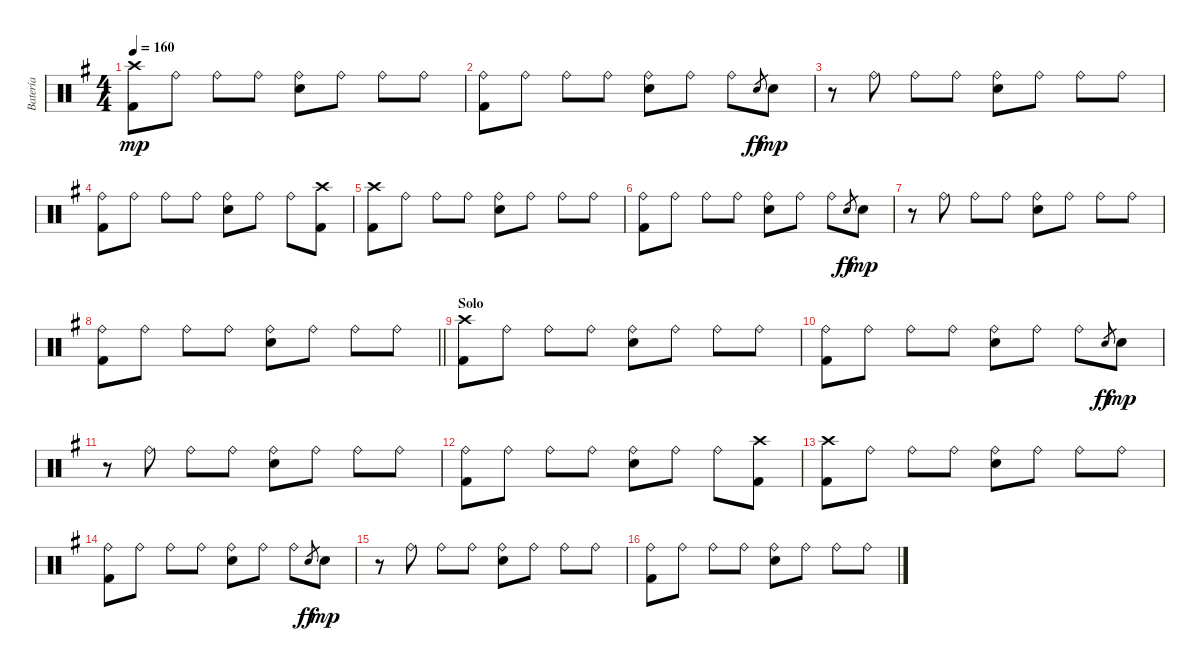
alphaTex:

\track ("Batería" "Batería") {instrument percussion}
\staff {score}
\articulation defaults
\ts (4 4)
\tempo 160
\clef neutral
\ks g
("Crash high (hit)" "Kick (hit) 2").8{dy mp} "Ride (bell)".8 "Ride (bell)".8 "Ride (bell)".8 ("Ride (bell)" "Snare (hit) 2").8 "Ride (bell)".8 "Ride (bell)".8 "Ride (bell)".8 |
("Ride (bell)" "Kick (hit) 2").8 "Ride (bell)".8 "Ride (bell)".8 "Ride (bell)".8 ("Ride (bell)" "Snare (hit) 2").8 "Ride (bell)".8 "Ride (bell)".8 "Snare (hit) 2".8{gr dy ff} "Snare (hit) 2".8{dy mp} |
r.8 "Ride (bell)".8 "Ride (bell)".8 "Ride (bell)".8 ("Ride (bell)" "Snare (hit) 2").8 "Ride (bell)".8 "Ride (bell)".8 "Ride (bell)".8 |
("Ride (bell)" "Kick (hit) 2").8 "Ride (bell)".8 "Ride (bell)".8 "Ride (bell)".8 ("Ride (bell)" "Snare (hit) 2").8 "Ride (bell)".8 "Ride (bell)".8 ("Crash high (hit)" "Kick (hit) 2").8 |
("Crash high (hit)" "Kick (hit) 2").8 "Ride (bell)".8 "Ride (bell)".8 "Ride (bell)".8 ("Ride (bell)" "Snare (hit) 2").8 "Ride (bell)".8 "Ride (bell)".8 "Ride (bell)".8 |
("Ride (bell)" "Kick (hit) 2").8 "Ride (bell)".8 "Ride (bell)".8 "Ride (bell)".8 ("Ride (bell)" "Snare (hit) 2").8 "Ride (bell)".8 "Ride (bell)".8 "Snare (hit) 2".8{gr dy ff} "Snare (hit) 2".8{dy mp} |
r.8 "Ride (bell)".8 "Ride (bell)".8 "Ride (bell)".8 ("Ride (bell)" "Snare (hit) 2").8 "Ride (bell)".8 "Ride (bell)".8 "Ride (bell)".8 |
\barLineRight lightlight
("Ride (bell)" "Kick (hit) 2").8 "Ride (bell)".8 "Ride (bell)".8 "Ride (bell)".8 ("Ride (bell)" "Snare (hit) 2").8 "Ride (bell)".8 "Ride (bell)".8 "Ride (bell)".8 |
\section ("" "Solo")
("Crash high (hit)" "Kick (hit) 2").8 "Ride (bell)".8 "Ride (bell)".8 "Ride (bell)".8 ("Ride (bell)" "Snare (hit) 2").8 "Ride (bell)".8 "Ride (bell)".8 "Ride (bell)".8 |
("Ride (bell)" "Kick (hit) 2").8 "Ride (bell)".8 "Ride (bell)".8 "Ride (bell)".8 ("Ride (bell)" "Snare (hit) 2").8 "Ride (bell)".8 "Ride (bell)".8 "Snare (hit) 2".8{gr dy ff} "Snare (hit) 2".8{dy mp} |
r.8 "Ride (bell)".8 "Ride (bell)".8 "Ride (bell)".8 ("Ride (bell)" "Snare (hit) 2").8 "Ride (bell)".8 "Ride (bell)".8 "Ride (bell)".8 |
("Ride (bell)" "Kick (hit) 2").8 "Ride (bell)".8 "Ride (bell)".8 "Ride (bell)".8 ("Ride (bell)" "Snare (hit) 2").8 "Ride (bell)".8 "Ride (bell)".8 ("Crash high (hit)" "Kick (hit) 2").8 |
("Crash high (hit)" "Kick (hit) 2").8 "Ride (bell)".8 "Ride (bell)".8 "Ride (bell)".8 ("Ride (bell)" "Snare (hit) 2").8 "Ride (bell)".8 "Ride (bell)".8 "Ride (bell)".8 |
("Ride (bell)" "Kick (hit) 2").8 "Ride (bell)".8 "Ride (bell)".8 "Ride (bell)".8 ("Ride (bell)" "Snare (hit) 2").8 "Ride (bell)".8 "Ride (bell)".8 "Snare (hit) 2".8{gr dy ff} "Snare (hit) 2".8{dy mp} |
r.8 "Ride (bell)".8 "Ride (bell)".8 "Ride (bell)".8 ("Ride (bell)" "Snare (hit) 2").8 "Ride (bell)".8 "Ride (bell)".8 "Ride (bell)".8 |
("Ride (bell)" "Kick (hit) 2").8 "Ride (bell)".8 "Ride (bell)".8 "Ride (bell)".8 ("Ride (bell)" "Snare (hit) 2").8 "Ride (bell)".8 "Ride (bell)".8 "Ride (bell)".8
